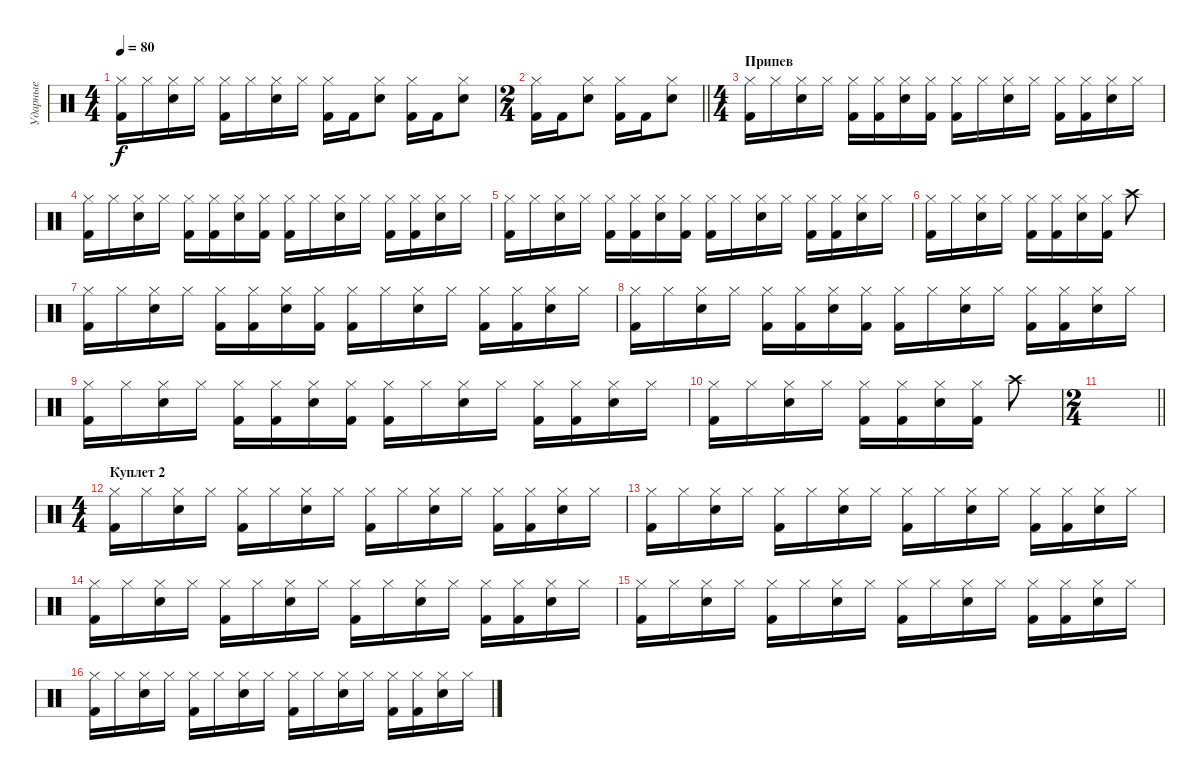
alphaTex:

\track ("Ударные" "Ударные") {instrument percussion}
\staff {score}
\articulation defaults
\ts (4 4)
\tempo 80
\clef neutral
\ks c
("Hi-Hat (closed)" "Kick (hit) 2").16{dy f} "Hi-Hat (closed)".16 ("Hi-Hat (closed)" "Electric Snare (hit)").16 "Hi-Hat (closed)".16 ("Hi-Hat (closed)" "Kick (hit) 2").16 "Hi-Hat (closed)".16 ("Hi-Hat (closed)" "Electric Snare (hit)").16 "Hi-Hat (closed)".16 ("Hi-Hat (closed)" "Kick (hit) 2").16 "Kick (hit) 2".16 ("Electric Snare (hit)" "Hi-Hat (closed)").8 ("Hi-Hat (closed)" "Kick (hit) 2").16 "Kick (hit) 2".16 ("Electric Snare (hit)" "Hi-Hat (closed)").8 |
\ts (2 4)
\barLineRight lightlight
("Hi-Hat (closed)" "Kick (hit) 2").16 "Kick (hit) 2".16 ("Electric Snare (hit)" "Hi-Hat (closed)").8 ("Hi-Hat (closed)" "Kick (hit) 2").16 "Kick (hit) 2".16 ("Electric Snare (hit)" "Hi-Hat (closed)").8 |
\ts (4 4)
\section ("" "Припев")
("Hi-Hat (closed)" "Kick (hit) 2").16 "Hi-Hat (closed)".16 ("Hi-Hat (closed)" "Electric Snare (hit)").16 "Hi-Hat (closed)".16 ("Hi-Hat (closed)" "Kick (hit) 2").16 ("Hi-Hat (closed)" "Kick (hit) 2").16 ("Hi-Hat (closed)" "Electric Snare (hit)").16 ("Hi-Hat (closed)" "Kick (hit) 2").16 ("Hi-Hat (closed)" "Kick (hit) 2").16 "Hi-Hat (closed)".16 ("Hi-Hat (closed)" "Electric Snare (hit)").16 "Hi-Hat (closed)".16 ("Hi-Hat (closed)" "Kick (hit) 2").16 ("Hi-Hat (closed)" "Kick (hit) 2").16 ("Hi-Hat (closed)" "Electric Snare (hit)").16 "Hi-Hat (closed)".16 |
("Hi-Hat (closed)" "Kick (hit) 2").16 "Hi-Hat (closed)".16 ("Hi-Hat (closed)" "Electric Snare (hit)").16 "Hi-Hat (closed)".16 ("Hi-Hat (closed)" "Kick (hit) 2").16 ("Hi-Hat (closed)" "Kick (hit) 2").16 ("Hi-Hat (closed)" "Electric Snare (hit)").16 ("Hi-Hat (closed)" "Kick (hit) 2").16 ("Hi-Hat (closed)" "Kick (hit) 2").16 "Hi-Hat (closed)".16 ("Hi-Hat (closed)" "Electric Snare (hit)").16 "Hi-Hat (closed)".16 ("Hi-Hat (closed)" "Kick (hit) 2").16 ("Hi-Hat (closed)" "Kick (hit) 2").16 ("Hi-Hat (closed)" "Electric Snare (hit)").16 "Hi-Hat (closed)".16 |
("Hi-Hat (closed)" "Kick (hit) 2").16 "Hi-Hat (closed)".16 ("Hi-Hat (closed)" "Electric Snare (hit)").16 "Hi-Hat (closed)".16 ("Hi-Hat (closed)" "Kick (hit) 2").16 ("Hi-Hat (closed)" "Kick (hit) 2").16 ("Hi-Hat (closed)" "Electric Snare (hit)").16 ("Hi-Hat (closed)" "Kick (hit) 2").16 ("Hi-Hat (closed)" "Kick (hit) 2").16 "Hi-Hat (closed)".16 ("Hi-Hat (closed)" "Electric Snare (hit)").16 "Hi-Hat (closed)".16 ("Hi-Hat (closed)" "Kick (hit) 2").16 ("Hi-Hat (closed)" "Kick (hit) 2").16 ("Hi-Hat (closed)" "Electric Snare (hit)").16 "Hi-Hat (closed)".16 |
("Hi-Hat (closed)" "Kick (hit) 2").16 "Hi-Hat (closed)".16 ("Hi-Hat (closed)" "Electric Snare (hit)").16 "Hi-Hat (closed)".16 ("Hi-Hat (closed)" "Kick (hit) 2").16 ("Hi-Hat (closed)" "Kick (hit) 2").16 ("Hi-Hat (closed)" "Electric Snare (hit)").16 ("Hi-Hat (closed)" "Kick (hit) 2").16 "Crash high (hit)".8 |
("Hi-Hat (closed)" "Kick (hit) 2").16 "Hi-Hat (closed)".16 ("Hi-Hat (closed)" "Electric Snare (hit)").16 "Hi-Hat (closed)".16 ("Hi-Hat (closed)" "Kick (hit) 2").16 ("Hi-Hat (closed)" "Kick (hit) 2").16 ("Hi-Hat (closed)" "Electric Snare (hit)").16 ("Hi-Hat (closed)" "Kick (hit) 2").16 ("Hi-Hat (closed)" "Kick (hit) 2").16 "Hi-Hat (closed)".16 ("Hi-Hat (closed)" "Electric Snare (hit)").16 "Hi-Hat (closed)".16 ("Hi-Hat (closed)" "Kick (hit) 2").16 ("Hi-Hat (closed)" "Kick (hit) 2").16 ("Hi-Hat (closed)" "Electric Snare (hit)").16 "Hi-Hat (closed)".16 |
("Hi-Hat (closed)" "Kick (hit) 2").16 "Hi-Hat (closed)".16 ("Hi-Hat (closed)" "Electric Snare (hit)").16 "Hi-Hat (closed)".16 ("Hi-Hat (closed)" "Kick (hit) 2").16 ("Hi-Hat (closed)" "Kick (hit) 2").16 ("Hi-Hat (closed)" "Electric Snare (hit)").16 ("Hi-Hat (closed)" "Kick (hit) 2").16 ("Hi-Hat (closed)" "Kick (hit) 2").16 "Hi-Hat (closed)".16 ("Hi-Hat (closed)" "Electric Snare (hit)").16 "Hi-Hat (closed)".16 ("Hi-Hat (closed)" "Kick (hit) 2").16 ("Hi-Hat (closed)" "Kick (hit) 2").16 ("Hi-Hat (closed)" "Electric Snare (hit)").16 "Hi-Hat (closed)".16 |
("Hi-Hat (closed)" "Kick (hit) 2").16 "Hi-Hat (closed)".16 ("Hi-Hat (closed)" "Electric Snare (hit)").16 "Hi-Hat (closed)".16 ("Hi-Hat (closed)" "Kick (hit) 2").16 ("Hi-Hat (closed)" "Kick (hit) 2").16 ("Hi-Hat (closed)" "Electric Snare (hit)").16 ("Hi-Hat (closed)" "Kick (hit) 2").16 ("Hi-Hat (closed)" "Kick (hit) 2").16 "Hi-Hat (closed)".16 ("Hi-Hat (closed)" "Electric Snare (hit)").16 "Hi-Hat (closed)".16 ("Hi-Hat (closed)" "Kick (hit) 2").16 ("Hi-Hat (closed)" "Kick (hit) 2").16 ("Hi-Hat (closed)" "Electric Snare (hit)").16 "Hi-Hat (closed)".16 |
("Hi-Hat (closed)" "Kick (hit) 2").16 "Hi-Hat (closed)".16 ("Hi-Hat (closed)" "Electric Snare (hit)").16 "Hi-Hat (closed)".16 ("Hi-Hat (closed)" "Kick (hit) 2").16 ("Hi-Hat (closed)" "Kick (hit) 2").16 ("Hi-Hat (closed)" "Electric Snare (hit)").16 ("Hi-Hat (closed)" "Kick (hit) 2").16 "Crash high (hit)".8 |
\ts (2 4)
\barLineRight lightlight
|
\ts (4 4)
\section ("" "Куплет 2")
("Hi-Hat (closed)" "Kick (hit) 2").16 "Hi-Hat (closed)".16 ("Hi-Hat (closed)" "Electric Snare (hit)").16 "Hi-Hat (closed)".16 ("Hi-Hat (closed)" "Kick (hit) 2").16 "Hi-Hat (closed)".16 ("Hi-Hat (closed)" "Electric Snare (hit)").16 "Hi-Hat (closed)".16 ("Hi-Hat (closed)" "Kick (hit) 2").16 "Hi-Hat (closed)".16 ("Hi-Hat (closed)" "Electric Snare (hit)").16 "Hi-Hat (closed)".16 ("Hi-Hat (closed)" "Kick (hit) 2").16 ("Hi-Hat (closed)" "Kick (hit) 2").16 ("Hi-Hat (closed)" "Electric Snare (hit)").16 "Hi-Hat (closed)".16 |
("Hi-Hat (closed)" "Kick (hit) 2").16 "Hi-Hat (closed)".16 ("Hi-Hat (closed)" "Electric Snare (hit)").16 "Hi-Hat (closed)".16 ("Hi-Hat (closed)" "Kick (hit) 2").16 "Hi-Hat (closed)".16 ("Hi-Hat (closed)" "Electric Snare (hit)").16 "Hi-Hat (closed)".16 ("Hi-Hat (closed)" "Kick (hit) 2").16 "Hi-Hat (closed)".16 ("Hi-Hat (closed)" "Electric Snare (hit)").16 "Hi-Hat (closed)".16 ("Hi-Hat (closed)" "Kick (hit) 2").16 ("Hi-Hat (closed)" "Kick (hit) 2").16 ("Hi-Hat (closed)" "Electric Snare (hit)").16 "Hi-Hat (closed)".16 |
("Hi-Hat (closed)" "Kick (hit) 2").16 "Hi-Hat (closed)".16 ("Hi-Hat (closed)" "Electric Snare (hit)").16 "Hi-Hat (closed)".16 ("Hi-Hat (closed)" "Kick (hit) 2").16 "Hi-Hat (closed)".16 ("Hi-Hat (closed)" "Electric Snare (hit)").16 "Hi-Hat (closed)".16 ("Hi-Hat (closed)" "Kick (hit) 2").16 "Hi-Hat (closed)".16 ("Hi-Hat (closed)" "Electric Snare (hit)").16 "Hi-Hat (closed)".16 ("Hi-Hat (closed)" "Kick (hit) 2").16 ("Hi-Hat (closed)" "Kick (hit) 2").16 ("Hi-Hat (closed)" "Electric Snare (hit)").16 "Hi-Hat (closed)".16 |
("Hi-Hat (closed)" "Kick (hit) 2").16 "Hi-Hat (closed)".16 ("Hi-Hat (closed)" "Electric Snare (hit)").16 "Hi-Hat (closed)".16 ("Hi-Hat (closed)" "Kick (hit) 2").16 "Hi-Hat (closed)".16 ("Hi-Hat (closed)" "Electric Snare (hit)").16 "Hi-Hat (closed)".16 ("Hi-Hat (closed)" "Kick (hit) 2").16 "Hi-Hat (closed)".16 ("Hi-Hat (closed)" "Electric Snare (hit)").16 "Hi-Hat (closed)".16 ("Hi-Hat (closed)" "Kick (hit) 2").16 ("Hi-Hat (closed)" "Kick (hit) 2").16 ("Hi-Hat (closed)" "Electric Snare (hit)").16 "Hi-Hat (closed)".16 |
("Hi-Hat (closed)" "Kick (hit) 2").16 "Hi-Hat (closed)".16 ("Hi-Hat (closed)" "Electric Snare (hit)").16 "Hi-Hat (closed)".16 ("Hi-Hat (closed)" "Kick (hit) 2").16 "Hi-Hat (closed)".16 ("Hi-Hat (closed)" "Electric Snare (hit)").16 "Hi-Hat (closed)".16 ("Hi-Hat (closed)" "Kick (hit) 2").16 "Hi-Hat (closed)".16 ("Hi-Hat (closed)" "Electric Snare (hit)").16 "Hi-Hat (closed)".16 ("Hi-Hat (closed)" "Kick (hit) 2").16 ("Hi-Hat (closed)" "Kick (hit) 2").16 ("Hi-Hat (closed)" "Electric Snare (hit)").16 "Hi-Hat (closed)".16
